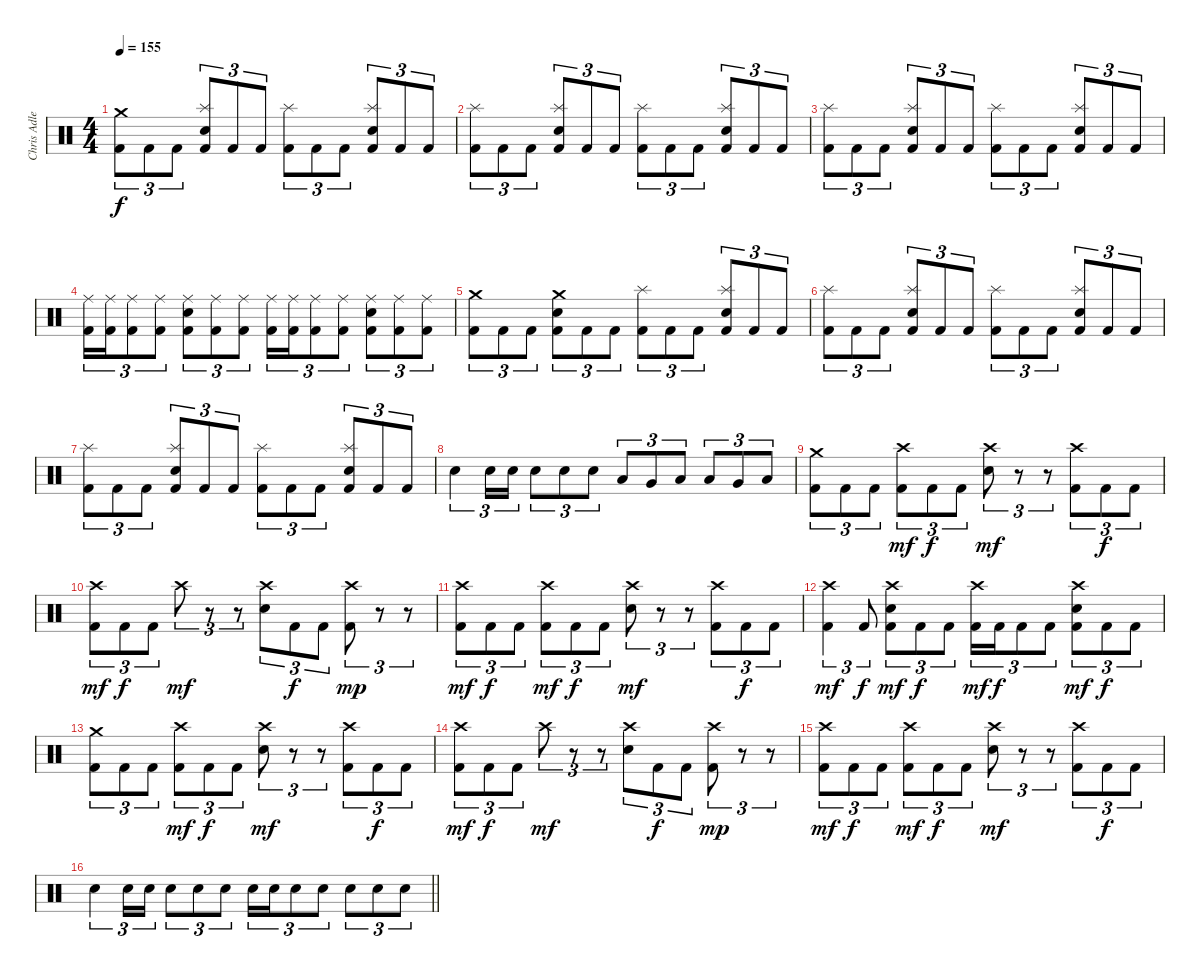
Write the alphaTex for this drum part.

\track ("Chris Adler" "Chris Adle") {instrument percussion}
\staff {score}
\articulation defaults
\ts (4 4)
\tempo 155
\clef neutral
\ks c
("Crash medium (hit)" "Kick (hit) 2").8{tu (3 2) dy f} "Kick (hit) 2".8{tu (3 2)} "Kick (hit) 2".8{tu (3 2)} ("Splash (hit)" "Snare (hit) 2" "Kick (hit) 2").8{tu (3 2)} "Kick (hit) 2".8{tu (3 2)} "Kick (hit) 2".8{tu (3 2)} ("Splash (hit)" "Kick (hit) 2").8{tu (3 2)} "Kick (hit) 2".8{tu (3 2)} "Kick (hit) 2".8{tu (3 2)} ("Splash (hit)" "Snare (hit) 2" "Kick (hit) 2").8{tu (3 2)} "Kick (hit) 2".8{tu (3 2)} "Kick (hit) 2".8{tu (3 2)} |
("Splash (hit)" "Kick (hit) 2").8{tu (3 2)} "Kick (hit) 2".8{tu (3 2)} "Kick (hit) 2".8{tu (3 2)} ("Splash (hit)" "Snare (hit) 2" "Kick (hit) 2").8{tu (3 2)} "Kick (hit) 2".8{tu (3 2)} "Kick (hit) 2".8{tu (3 2)} ("Splash (hit)" "Kick (hit) 2").8{tu (3 2)} "Kick (hit) 2".8{tu (3 2)} "Kick (hit) 2".8{tu (3 2)} ("Splash (hit)" "Snare (hit) 2" "Kick (hit) 2").8{tu (3 2)} "Kick (hit) 2".8{tu (3 2)} "Kick (hit) 2".8{tu (3 2)} |
("Splash (hit)" "Kick (hit) 2").8{tu (3 2)} "Kick (hit) 2".8{tu (3 2)} "Kick (hit) 2".8{tu (3 2)} ("Splash (hit)" "Snare (hit) 2" "Kick (hit) 2").8{tu (3 2)} "Kick (hit) 2".8{tu (3 2)} "Kick (hit) 2".8{tu (3 2)} ("Splash (hit)" "Kick (hit) 2").8{tu (3 2)} "Kick (hit) 2".8{tu (3 2)} "Kick (hit) 2".8{tu (3 2)} ("Splash (hit)" "Snare (hit) 2" "Kick (hit) 2").8{tu (3 2)} "Kick (hit) 2".8{tu (3 2)} "Kick (hit) 2".8{tu (3 2)} |
("Ride (middle)" "Kick (hit) 2").16{tu (3 2)} ("Ride (middle)" "Kick (hit) 2").16{tu (3 2)} ("Ride (middle)" "Kick (hit) 2").8{tu (3 2)} ("Ride (middle)" "Kick (hit) 2").8{tu (3 2)} ("Ride (middle)" "Snare (hit) 2" "Kick (hit) 2").8{tu (3 2)} ("Ride (middle)" "Kick (hit) 2").8{tu (3 2)} ("Ride (middle)" "Kick (hit) 2").8{tu (3 2)} ("Ride (middle)" "Kick (hit) 2").16{tu (3 2)} ("Ride (middle)" "Kick (hit) 2").16{tu (3 2)} ("Ride (middle)" "Kick (hit) 2").8{tu (3 2)} ("Ride (middle)" "Kick (hit) 2").8{tu (3 2)} ("Ride (middle)" "Snare (hit) 2" "Kick (hit) 2").8{tu (3 2)} ("Ride (middle)" "Kick (hit) 2").8{tu (3 2)} ("Ride (middle)" "Kick (hit) 2").8{tu (3 2)} |
("Crash medium (hit)" "Kick (hit) 2").8{tu (3 2)} "Kick (hit) 2".8{tu (3 2)} "Kick (hit) 2".8{tu (3 2)} ("Crash medium (hit)" "Snare (hit) 2" "Kick (hit) 2").8{tu (3 2)} "Kick (hit) 2".8{tu (3 2)} "Kick (hit) 2".8{tu (3 2)} ("Splash (hit)" "Kick (hit) 2").8{tu (3 2)} "Kick (hit) 2".8{tu (3 2)} "Kick (hit) 2".8{tu (3 2)} ("Splash (hit)" "Snare (hit) 2" "Kick (hit) 2").8{tu (3 2)} "Kick (hit) 2".8{tu (3 2)} "Kick (hit) 2".8{tu (3 2)} |
("Splash (hit)" "Kick (hit) 2").8{tu (3 2)} "Kick (hit) 2".8{tu (3 2)} "Kick (hit) 2".8{tu (3 2)} ("Splash (hit)" "Snare (hit) 2" "Kick (hit) 2").8{tu (3 2)} "Kick (hit) 2".8{tu (3 2)} "Kick (hit) 2".8{tu (3 2)} ("Splash (hit)" "Kick (hit) 2").8{tu (3 2)} "Kick (hit) 2".8{tu (3 2)} "Kick (hit) 2".8{tu (3 2)} ("Splash (hit)" "Snare (hit) 2" "Kick (hit) 2").8{tu (3 2)} "Kick (hit) 2".8{tu (3 2)} "Kick (hit) 2".8{tu (3 2)} |
("Splash (hit)" "Kick (hit) 2").8{tu (3 2)} "Kick (hit) 2".8{tu (3 2)} "Kick (hit) 2".8{tu (3 2)} ("Splash (hit)" "Snare (hit) 2" "Kick (hit) 2").8{tu (3 2)} "Kick (hit) 2".8{tu (3 2)} "Kick (hit) 2".8{tu (3 2)} ("Splash (hit)" "Kick (hit) 2").8{tu (3 2)} "Kick (hit) 2".8{tu (3 2)} "Kick (hit) 2".8{tu (3 2)} ("Splash (hit)" "Snare (hit) 2" "Kick (hit) 2").8{tu (3 2)} "Kick (hit) 2".8{tu (3 2)} "Kick (hit) 2".8{tu (3 2)} |
"Electric Snare (hit)".4{tu (3 2)} "Electric Snare (hit)".16{tu (3 2)} "Electric Snare (hit)".16{tu (3 2)} "Electric Snare (hit)".8{tu (3 2)} "Electric Snare (hit)".8{tu (3 2)} "Electric Snare (hit)".8{tu (3 2)} "Low Tom (hit)".8{tu (3 2)} "Very Low Tom (hit)".8{tu (3 2)} "Low Floor Tom (hit)".8{tu (3 2)} "Low Tom (hit)".8{tu (3 2)} "Very Low Tom (hit)".8{tu (3 2)} "Low Floor Tom (hit)".8{tu (3 2)} |
("Crash medium (hit)" "Kick (hit) 2").8{tu (3 2)} "Kick (hit) 2".8{tu (3 2)} "Kick (hit) 2".8{tu (3 2)} ("Crash high (hit)" "Kick (hit) 2").8{tu (3 2) dy mf} "Kick (hit) 2".8{tu (3 2) dy f} "Kick (hit) 2".8{tu (3 2)} ("Crash high (hit)" "Snare (hit) 2").8{tu (3 2) dy mf} r.8{tu (3 2)} r.8{tu (3 2)} ("Crash high (hit)" "Kick (hit) 2").8{tu (3 2)} "Kick (hit) 2".8{tu (3 2) dy f} "Kick (hit) 2".8{tu (3 2)} |
("Crash high (hit)" "Kick (hit) 2").8{tu (3 2) dy mf} "Kick (hit) 2".8{tu (3 2) dy f} "Kick (hit) 2".8{tu (3 2)} "Crash high (hit)".8{tu (3 2) dy mf} r.8{tu (3 2)} r.8{tu (3 2)} ("Crash high (hit)" "Snare (hit) 2").8{tu (3 2)} "Kick (hit) 2".8{tu (3 2) dy f} "Kick (hit) 2".8{tu (3 2)} ("Crash high (hit)" "Kick (hit) 2").8{tu (3 2) dy mp} r.8{tu (3 2)} r.8{tu (3 2)} |
("Crash high (hit)" "Kick (hit) 2").8{tu (3 2) dy mf} "Kick (hit) 2".8{tu (3 2) dy f} "Kick (hit) 2".8{tu (3 2)} ("Crash high (hit)" "Kick (hit) 2").8{tu (3 2) dy mf} "Kick (hit) 2".8{tu (3 2) dy f} "Kick (hit) 2".8{tu (3 2)} ("Crash high (hit)" "Snare (hit) 2").8{tu (3 2) dy mf} r.8{tu (3 2)} r.8{tu (3 2)} ("Crash high (hit)" "Kick (hit) 2").8{tu (3 2)} "Kick (hit) 2".8{tu (3 2) dy f} "Kick (hit) 2".8{tu (3 2)} |
("Crash high (hit)" "Kick (hit) 2").4{tu (3 2) dy mf} "Kick (hit) 2".8{tu (3 2) dy f} ("Crash high (hit)" "Snare (hit) 2" "Kick (hit) 2").8{tu (3 2) dy mf} "Kick (hit) 2".8{tu (3 2) dy f} "Kick (hit) 2".8{tu (3 2)} ("Crash high (hit)" "Kick (hit) 2").16{tu (3 2) dy mf} "Kick (hit) 2".16{tu (3 2) dy f} "Kick (hit) 2".8{tu (3 2)} "Kick (hit) 2".8{tu (3 2)} ("Crash high (hit)" "Snare (hit) 2" "Kick (hit) 2").8{tu (3 2) dy mf} "Kick (hit) 2".8{tu (3 2) dy f} "Kick (hit) 2".8{tu (3 2)} |
("Crash medium (hit)" "Kick (hit) 2").8{tu (3 2)} "Kick (hit) 2".8{tu (3 2)} "Kick (hit) 2".8{tu (3 2)} ("Crash high (hit)" "Kick (hit) 2").8{tu (3 2) dy mf} "Kick (hit) 2".8{tu (3 2) dy f} "Kick (hit) 2".8{tu (3 2)} ("Crash high (hit)" "Snare (hit) 2").8{tu (3 2) dy mf} r.8{tu (3 2)} r.8{tu (3 2)} ("Crash high (hit)" "Kick (hit) 2").8{tu (3 2)} "Kick (hit) 2".8{tu (3 2) dy f} "Kick (hit) 2".8{tu (3 2)} |
("Crash high (hit)" "Kick (hit) 2").8{tu (3 2) dy mf} "Kick (hit) 2".8{tu (3 2) dy f} "Kick (hit) 2".8{tu (3 2)} "Crash high (hit)".8{tu (3 2) dy mf} r.8{tu (3 2)} r.8{tu (3 2)} ("Crash high (hit)" "Snare (hit) 2").8{tu (3 2)} "Kick (hit) 2".8{tu (3 2) dy f} "Kick (hit) 2".8{tu (3 2)} ("Crash high (hit)" "Kick (hit) 2").8{tu (3 2) dy mp} r.8{tu (3 2)} r.8{tu (3 2)} |
("Crash high (hit)" "Kick (hit) 2").8{tu (3 2) dy mf} "Kick (hit) 2".8{tu (3 2) dy f} "Kick (hit) 2".8{tu (3 2)} ("Crash high (hit)" "Kick (hit) 2").8{tu (3 2) dy mf} "Kick (hit) 2".8{tu (3 2) dy f} "Kick (hit) 2".8{tu (3 2)} ("Crash high (hit)" "Snare (hit) 2").8{tu (3 2) dy mf} r.8{tu (3 2)} r.8{tu (3 2)} ("Crash high (hit)" "Kick (hit) 2").8{tu (3 2)} "Kick (hit) 2".8{tu (3 2) dy f} "Kick (hit) 2".8{tu (3 2)} |
\barLineRight lightlight "Electric Snare (hit)".4{tu (3 2)} "Electric Snare (hit)".16{tu (3 2)} "Electric Snare (hit)".16{tu (3 2)} "Electric Snare (hit)".8{tu (3 2)} "Electric Snare (hit)".8{tu (3 2)} "Electric Snare (hit)".8{tu (3 2)} "Electric Snare (hit)".16{tu (3 2)} "Electric Snare (hit)".16{tu (3 2)} "Electric Snare (hit)".8{tu (3 2)} "Electric Snare (hit)".8{tu (3 2)} "Electric Snare (hit)".8{tu (3 2)} "Electric Snare (hit)".8{tu (3 2)} "Electric Snare (hit)".8{tu (3 2)}
